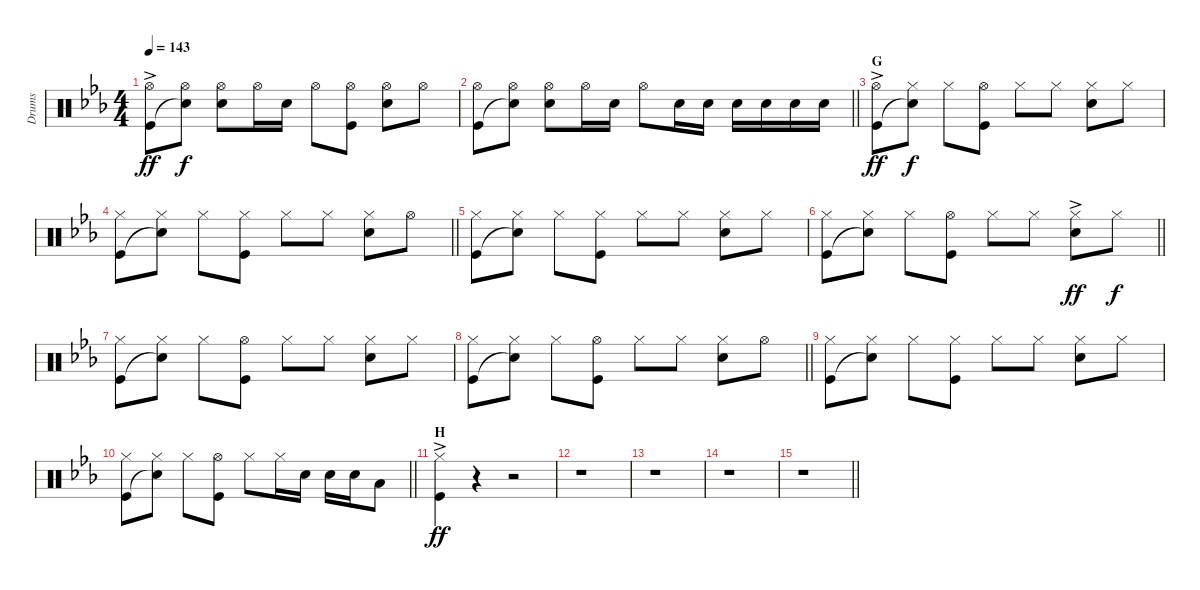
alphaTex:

\track ("Drums" "Drums") {instrument percussion}
\staff {score}
\articulation defaults
\ts (4 4)
\tempo 143
\clef neutral
\ks eb
("Hi-Hat (open)"{ac} "Kick (hit)"{ac}).8{dy ff} ("Hi-Hat (open)" "Snare (hit)"{t}).8{dy f} ("Hi-Hat (open)" "Snare (hit) 2").8 "Hi-Hat (open)".16 "Snare (hit) 2".16 "Hi-Hat (open)".8 ("Hi-Hat (open)" "Kick (hit)").8 ("Hi-Hat (open)" "Snare (hit) 2").8 "Hi-Hat (open)".8 |
\barLineRight lightlight
("Hi-Hat (open)" "Kick (hit)").8 ("Hi-Hat (open)" "Snare (hit)"{t}).8 ("Hi-Hat (open)" "Snare (hit) 2").8 "Hi-Hat (open)".16 "Snare (hit) 2".16 "Hi-Hat (open)".8 "Snare (hit) 2".16 "Snare (hit) 2".16 "Snare (hit) 2".16 "Snare (hit) 2".16 "Snare (hit) 2".16 "Snare (hit) 2".16 |
\section ("" "G")
("Hi-Hat (open)"{ac} "Kick (hit)"{ac}).8{dy ff} ("Hi-Hat (closed)" "Snare (hit)"{t}).8{dy f} "Hi-Hat (closed)".8 ("Hi-Hat (open)" "Kick (hit)").8 "Hi-Hat (closed)".8 "Hi-Hat (closed)".8 ("Hi-Hat (closed)" "Snare (hit) 2").8 "Hi-Hat (closed)".8 |
\barLineRight lightlight
("Hi-Hat (closed)" "Kick (hit)").8 ("Hi-Hat (closed)" "Snare (hit)"{t}).8 "Hi-Hat (closed)".8 ("Hi-Hat (closed)" "Kick (hit)").8 "Hi-Hat (closed)".8 "Hi-Hat (closed)".8 ("Hi-Hat (closed)" "Snare (hit) 2").8 "Hi-Hat (open)".8 |
("Hi-Hat (closed)" "Kick (hit)").8 ("Hi-Hat (closed)" "Snare (hit)"{t}).8 "Hi-Hat (closed)".8 ("Hi-Hat (closed)" "Kick (hit)").8 "Hi-Hat (closed)".8 "Hi-Hat (closed)".8 ("Hi-Hat (closed)" "Snare (hit) 2").8 "Hi-Hat (closed)".8 |
\barLineRight lightlight
("Hi-Hat (closed)" "Kick (hit)").8 ("Hi-Hat (closed)" "Snare (hit)"{t}).8 "Hi-Hat (closed)".8 ("Hi-Hat (open)" "Kick (hit)").8 "Hi-Hat (closed)".8 "Hi-Hat (closed)".8 ("Hi-Hat (closed)"{ac} "Snare (hit) 2"{ac}).8{dy ff} "Hi-Hat (closed)".8{dy f} |
("Hi-Hat (closed)" "Kick (hit)").8 ("Hi-Hat (closed)" "Snare (hit)"{t}).8 "Hi-Hat (closed)".8 ("Hi-Hat (open)" "Kick (hit)").8 "Hi-Hat (closed)".8 "Hi-Hat (closed)".8 ("Hi-Hat (closed)" "Snare (hit) 2").8 "Hi-Hat (closed)".8 |
\barLineRight lightlight
("Hi-Hat (closed)" "Kick (hit)").8 ("Hi-Hat (closed)" "Snare (hit)"{t}).8 "Hi-Hat (closed)".8 ("Hi-Hat (open)" "Kick (hit)").8 "Hi-Hat (closed)".8 "Hi-Hat (closed)".8 ("Hi-Hat (closed)" "Snare (hit) 2").8 "Hi-Hat (open)".8 |
("Hi-Hat (closed)" "Kick (hit)").8 ("Hi-Hat (closed)" "Snare (hit)"{t}).8 "Hi-Hat (closed)".8 ("Hi-Hat (closed)" "Kick (hit)").8 "Hi-Hat (closed)".8 "Hi-Hat (closed)".8 ("Hi-Hat (closed)" "Snare (hit) 2").8 "Hi-Hat (closed)".8 |
\barLineRight lightlight
("Hi-Hat (closed)" "Kick (hit)").8 ("Hi-Hat (closed)" "Snare (hit)"{t}).8 "Hi-Hat (closed)".8 ("Hi-Hat (open)" "Kick (hit)").8 "Hi-Hat (closed)".8 "Hi-Hat (closed)".16 "Snare (hit) 2".16 "Snare (hit) 2".16 "Snare (hit) 2".16 "Low Tom (hit)".8 |
\section ("" "H")
("Hi-Hat (closed)"{ac} "Kick (hit)"{ac}).4{dy ff} r.4 r.2 |
r.1 |
r.1 |
r.1 |
\barLineRight lightlight
r.1
